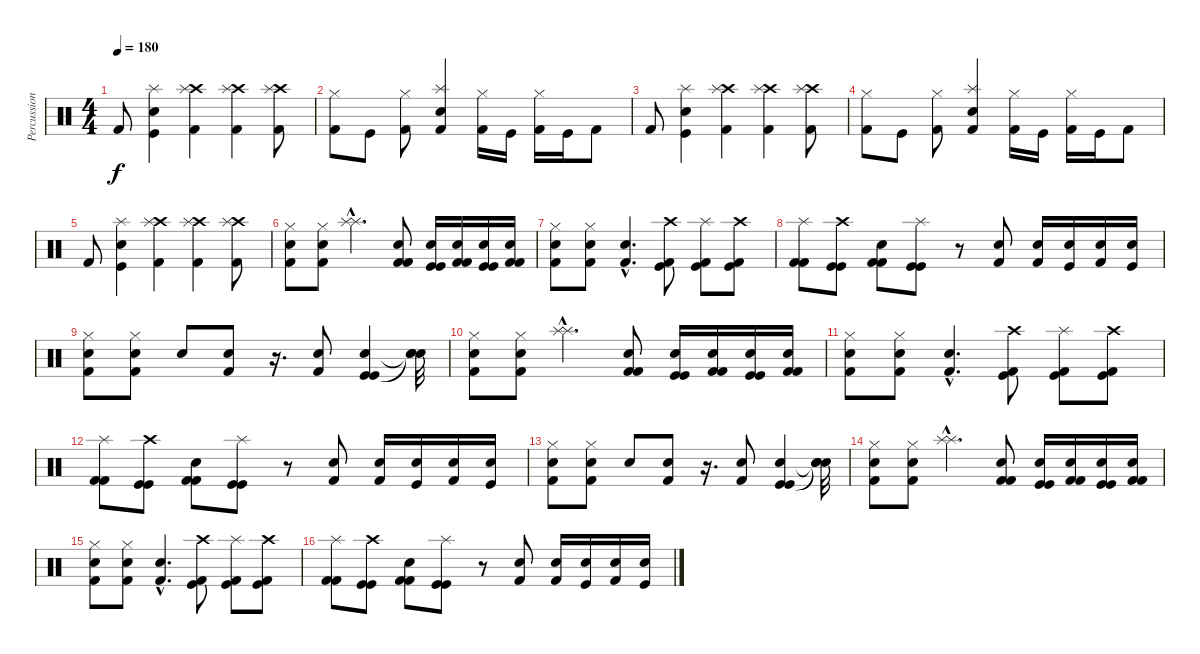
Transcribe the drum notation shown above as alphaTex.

\track ("Percussion" "Percussion") {instrument percussion}
\staff {score}
\articulation defaults
\ts (4 4)
\tempo 180
\clef neutral
\ks c "Kick (hit) 2".8{dy f}
("Splash (hit)" "Electric Snare (hit)" "Kick (hit)").4 ("Crash high (hit)" "Splash (hit)" "Kick (hit) 2").4 ("Crash high (hit)" "Splash (hit)" "Kick (hit) 2").4 ("Crash high (hit)" "Splash (hit)" "Kick (hit) 2").8 |
("Hi-Hat (closed)" "Kick (hit) 2").8 "Kick (hit)".8 ("Hi-Hat (closed)" "Kick (hit) 2").8 ("Splash (hit)" "Electric Snare (hit)" "Kick (hit) 2").4 ("Hi-Hat (closed)" "Kick (hit) 2").16 "Kick (hit)".16 ("Hi-Hat (closed)" "Kick (hit) 2").16 "Kick (hit)".16 "Kick (hit) 2".8 |
"Kick (hit) 2".8 ("Splash (hit)" "Electric Snare (hit)" "Kick (hit)").4 ("Crash high (hit)" "Splash (hit)" "Kick (hit) 2").4 ("Crash high (hit)" "Splash (hit)" "Kick (hit) 2").4 ("Crash high (hit)" "Splash (hit)" "Kick (hit) 2").8 |
("Hi-Hat (closed)" "Kick (hit) 2").8 "Kick (hit)".8 ("Hi-Hat (closed)" "Kick (hit) 2").8 ("Splash (hit)" "Electric Snare (hit)" "Kick (hit) 2").4 ("Hi-Hat (closed)" "Kick (hit) 2").16 "Kick (hit)".16 ("Hi-Hat (closed)" "Kick (hit) 2").16 "Kick (hit)".16 "Kick (hit) 2".8 |
"Kick (hit) 2".8 ("Splash (hit)" "Electric Snare (hit)" "Kick (hit)").4 ("Crash high (hit)" "Splash (hit)" "Kick (hit) 2").4 ("Crash high (hit)" "Splash (hit)" "Kick (hit) 2").4 ("Crash high (hit)" "Splash (hit)" "Kick (hit) 2").8 |
("Hi-Hat (closed)" "Electric Snare (hit)" "Kick (hit) 2").8 ("Hi-Hat (closed)" "Electric Snare (hit)" "Kick (hit) 2").8 ("Splash (hit)"{hac} "Splash (hit)"{hac}).4{d} ("Kick (hit) 2" "Electric Snare (hit)" "Kick (hit) 2").8 ("Kick (hit)" "Electric Snare (hit)" "Kick (hit)").16 ("Kick (hit) 2" "Electric Snare (hit)" "Kick (hit) 2").16 ("Kick (hit)" "Electric Snare (hit)" "Kick (hit)").16 ("Kick (hit) 2" "Electric Snare (hit)" "Kick (hit) 2").16 |
("Hi-Hat (closed)" "Electric Snare (hit)" "Kick (hit) 2").8 ("Hi-Hat (closed)" "Electric Snare (hit)" "Kick (hit) 2").8 ("Electric Snare (hit)"{hac} "Kick (hit) 2"{hac}).4{d} ("Crash high (hit)" "Kick (hit)" "Kick (hit) 2").8 ("Splash (hit)" "Kick (hit)" "Kick (hit) 2").8 ("Crash high (hit)" "Kick (hit)" "Kick (hit) 2").8 |
("Splash (hit)" "Kick (hit) 2" "Kick (hit) 2").8 ("Crash high (hit)" "Kick (hit)" "Kick (hit)").8 ("Electric Snare (hit)" "Kick (hit) 2" "Kick (hit) 2").8 ("Splash (hit)" "Kick (hit)" "Kick (hit)").8 r.8 ("Electric Snare (hit)" "Kick (hit) 2").8 ("Electric Snare (hit)" "Kick (hit) 2").16 ("Electric Snare (hit)" "Kick (hit)").16 ("Electric Snare (hit)" "Kick (hit) 2").16 ("Electric Snare (hit)" "Kick (hit)").16 |
("Hi-Hat (closed)" "Electric Snare (hit)" "Kick (hit) 2").8 ("Hi-Hat (closed)" "Electric Snare (hit)" "Kick (hit) 2").8 "Electric Snare (hit)".8 ("Electric Snare (hit)" "Kick (hit) 2").8 r.16{d} ("Electric Snare (hit)" "Kick (hit) 2").8 ("Kick (hit)" "Electric Snare (hit)" "Kick (hit)").4 ("Snare (hit)"{t} "Snare (hit)"{t} "Snare (hit)"{t}).32 |
("Hi-Hat (closed)" "Electric Snare (hit)" "Kick (hit) 2").8 ("Hi-Hat (closed)" "Electric Snare (hit)" "Kick (hit) 2").8 ("Splash (hit)"{hac} "Splash (hit)"{hac}).4{d} ("Kick (hit) 2" "Electric Snare (hit)" "Kick (hit) 2").8 ("Kick (hit)" "Electric Snare (hit)" "Kick (hit)").16 ("Kick (hit) 2" "Electric Snare (hit)" "Kick (hit) 2").16 ("Kick (hit)" "Electric Snare (hit)" "Kick (hit)").16 ("Kick (hit) 2" "Electric Snare (hit)" "Kick (hit) 2").16 |
("Hi-Hat (closed)" "Electric Snare (hit)" "Kick (hit) 2").8 ("Hi-Hat (closed)" "Electric Snare (hit)" "Kick (hit) 2").8 ("Electric Snare (hit)"{hac} "Kick (hit) 2"{hac}).4{d} ("Crash high (hit)" "Kick (hit)" "Kick (hit) 2").8 ("Splash (hit)" "Kick (hit)" "Kick (hit) 2").8 ("Crash high (hit)" "Kick (hit)" "Kick (hit) 2").8 |
("Splash (hit)" "Kick (hit) 2" "Kick (hit) 2").8 ("Crash high (hit)" "Kick (hit)" "Kick (hit)").8 ("Electric Snare (hit)" "Kick (hit) 2" "Kick (hit) 2").8 ("Splash (hit)" "Kick (hit)" "Kick (hit)").8 r.8 ("Electric Snare (hit)" "Kick (hit) 2").8 ("Electric Snare (hit)" "Kick (hit) 2").16 ("Electric Snare (hit)" "Kick (hit)").16 ("Electric Snare (hit)" "Kick (hit) 2").16 ("Electric Snare (hit)" "Kick (hit)").16 |
("Hi-Hat (closed)" "Electric Snare (hit)" "Kick (hit) 2").8 ("Hi-Hat (closed)" "Electric Snare (hit)" "Kick (hit) 2").8 "Electric Snare (hit)".8 ("Electric Snare (hit)" "Kick (hit) 2").8 r.16{d} ("Electric Snare (hit)" "Kick (hit) 2").8 ("Kick (hit)" "Electric Snare (hit)" "Kick (hit)").4 ("Snare (hit)"{t} "Snare (hit)"{t} "Snare (hit)"{t}).32 |
("Hi-Hat (closed)" "Electric Snare (hit)" "Kick (hit) 2").8 ("Hi-Hat (closed)" "Electric Snare (hit)" "Kick (hit) 2").8 ("Splash (hit)"{hac} "Splash (hit)"{hac}).4{d} ("Kick (hit) 2" "Electric Snare (hit)" "Kick (hit) 2").8 ("Kick (hit)" "Electric Snare (hit)" "Kick (hit)").16 ("Kick (hit) 2" "Electric Snare (hit)" "Kick (hit) 2").16 ("Kick (hit)" "Electric Snare (hit)" "Kick (hit)").16 ("Kick (hit) 2" "Electric Snare (hit)" "Kick (hit) 2").16 |
("Hi-Hat (closed)" "Electric Snare (hit)" "Kick (hit) 2").8 ("Hi-Hat (closed)" "Electric Snare (hit)" "Kick (hit) 2").8 ("Electric Snare (hit)"{hac} "Kick (hit) 2"{hac}).4{d} ("Crash high (hit)" "Kick (hit)" "Kick (hit) 2").8 ("Splash (hit)" "Kick (hit)" "Kick (hit) 2").8 ("Crash high (hit)" "Kick (hit)" "Kick (hit) 2").8 |
("Splash (hit)" "Kick (hit) 2" "Kick (hit) 2").8 ("Crash high (hit)" "Kick (hit)" "Kick (hit)").8 ("Electric Snare (hit)" "Kick (hit) 2" "Kick (hit) 2").8 ("Splash (hit)" "Kick (hit)" "Kick (hit)").8 r.8 ("Electric Snare (hit)" "Kick (hit) 2").8 ("Electric Snare (hit)" "Kick (hit) 2").16 ("Electric Snare (hit)" "Kick (hit)").16 ("Electric Snare (hit)" "Kick (hit) 2").16 ("Electric Snare (hit)" "Kick (hit)").16
